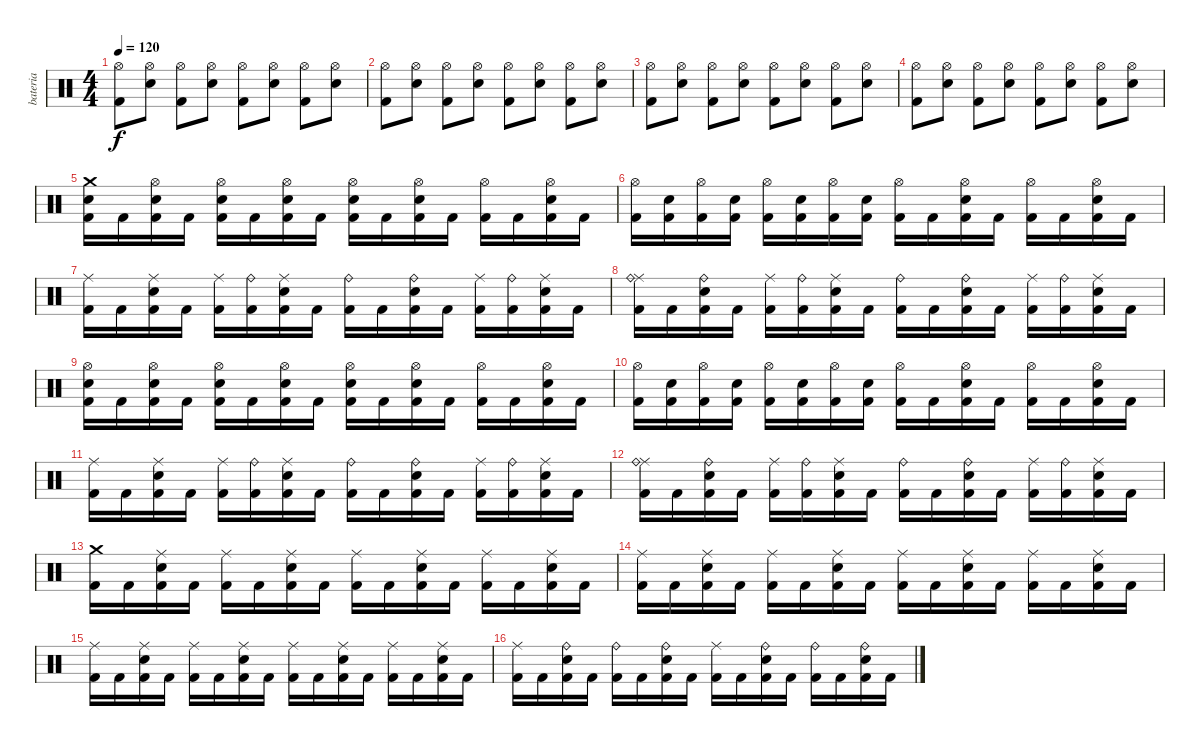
\track ("bateria" "bateria") {instrument percussion}
\staff {score}
\articulation defaults
\ts (4 4)
\tempo 120
\clef neutral
\ks c
("Hi-Hat (open)" "Kick (hit) 2").8{dy f} ("Hi-Hat (open)" "Electric Snare (hit)").8 ("Hi-Hat (open)" "Kick (hit) 2").8 ("Hi-Hat (open)" "Electric Snare (hit)").8 ("Hi-Hat (open)" "Kick (hit) 2").8 ("Hi-Hat (open)" "Electric Snare (hit)").8 ("Hi-Hat (open)" "Kick (hit) 2").8 ("Hi-Hat (open)" "Electric Snare (hit)").8 |
("Hi-Hat (open)" "Kick (hit) 2").8 ("Hi-Hat (open)" "Electric Snare (hit)").8 ("Hi-Hat (open)" "Kick (hit) 2").8 ("Hi-Hat (open)" "Electric Snare (hit)").8 ("Hi-Hat (open)" "Kick (hit) 2").8 ("Hi-Hat (open)" "Electric Snare (hit)").8 ("Hi-Hat (open)" "Kick (hit) 2").8 ("Hi-Hat (open)" "Electric Snare (hit)").8 |
("Hi-Hat (open)" "Kick (hit) 2").8 ("Hi-Hat (open)" "Electric Snare (hit)").8 ("Hi-Hat (open)" "Kick (hit) 2").8 ("Hi-Hat (open)" "Electric Snare (hit)").8 ("Hi-Hat (open)" "Kick (hit) 2").8 ("Hi-Hat (open)" "Electric Snare (hit)").8 ("Hi-Hat (open)" "Kick (hit) 2").8 ("Hi-Hat (open)" "Electric Snare (hit)").8 |
("Hi-Hat (open)" "Kick (hit) 2").8 ("Hi-Hat (open)" "Electric Snare (hit)").8 ("Hi-Hat (open)" "Kick (hit) 2").8 ("Hi-Hat (open)" "Electric Snare (hit)").8 ("Hi-Hat (open)" "Kick (hit) 2").8 ("Hi-Hat (open)" "Electric Snare (hit)").8 ("Hi-Hat (open)" "Kick (hit) 2").8 ("Hi-Hat (open)" "Electric Snare (hit)").8 |
("Crash medium (hit)" "Electric Snare (hit)" "Kick (hit) 2").16 "Kick (hit) 2".16 ("Hi-Hat (open)" "Electric Snare (hit)" "Kick (hit) 2").16 "Kick (hit) 2".16 ("Hi-Hat (open)" "Electric Snare (hit)" "Kick (hit) 2").16 "Kick (hit) 2".16 ("Hi-Hat (open)" "Electric Snare (hit)" "Kick (hit) 2").16 "Kick (hit) 2".16 ("Hi-Hat (open)" "Electric Snare (hit)" "Kick (hit) 2").16 "Kick (hit) 2".16 ("Hi-Hat (open)" "Electric Snare (hit)" "Kick (hit) 2").16 "Kick (hit) 2".16 ("Hi-Hat (open)" "Kick (hit) 2").16 "Kick (hit) 2".16 ("Hi-Hat (open)" "Electric Snare (hit)" "Kick (hit) 2").16 "Kick (hit) 2".16 |
("Hi-Hat (open)" "Kick (hit) 2").16 ("Electric Snare (hit)" "Kick (hit) 2").16 ("Hi-Hat (open)" "Kick (hit) 2").16 ("Electric Snare (hit)" "Kick (hit) 2").16 ("Hi-Hat (open)" "Kick (hit) 2").16 ("Electric Snare (hit)" "Kick (hit) 2").16 ("Hi-Hat (open)" "Kick (hit) 2").16 ("Electric Snare (hit)" "Kick (hit) 2").16 ("Hi-Hat (open)" "Kick (hit) 2").16 "Kick (hit) 2".16 ("Hi-Hat (open)" "Electric Snare (hit)" "Kick (hit) 2").16 "Kick (hit) 2".16 ("Hi-Hat (open)" "Kick (hit) 2").16 "Kick (hit) 2".16 ("Hi-Hat (open)" "Electric Snare (hit)" "Kick (hit) 2").16 "Kick (hit) 2".16 |
("Ride (middle)" "Kick (hit) 2").16 "Kick (hit) 2".16 ("Ride (middle)" "Electric Snare (hit)" "Kick (hit) 2").16 "Kick (hit) 2".16 ("Ride (middle)" "Kick (hit) 2").16 ("Ride (bell)" "Kick (hit) 2").16 ("Ride (middle)" "Electric Snare (hit)" "Kick (hit) 2").16 "Kick (hit) 2".16 ("Ride (bell)" "Kick (hit) 2").16 "Kick (hit) 2".16 ("Ride (bell)" "Electric Snare (hit)" "Kick (hit) 2").16 "Kick (hit) 2".16 ("Ride (middle)" "Kick (hit) 2").16 ("Ride (bell)" "Kick (hit) 2").16 ("Ride (middle)" "Electric Snare (hit)" "Kick (hit) 2").16 "Kick (hit) 2".16 |
("Ride (middle)" "Ride (bell)" "Kick (hit) 2").16 "Kick (hit) 2".16 ("Ride (bell)" "Electric Snare (hit)" "Kick (hit) 2").16 "Kick (hit) 2".16 ("Ride (middle)" "Kick (hit) 2").16 ("Ride (bell)" "Kick (hit) 2").16 ("Ride (middle)" "Electric Snare (hit)" "Kick (hit) 2").16 "Kick (hit) 2".16 ("Ride (bell)" "Kick (hit) 2").16 "Kick (hit) 2".16 ("Ride (bell)" "Electric Snare (hit)" "Kick (hit) 2").16 "Kick (hit) 2".16 ("Ride (middle)" "Kick (hit) 2").16 ("Ride (bell)" "Kick (hit) 2").16 ("Ride (middle)" "Electric Snare (hit)" "Kick (hit) 2").16 "Kick (hit) 2".16 |
("Hi-Hat (open)" "Electric Snare (hit)" "Kick (hit) 2").16 "Kick (hit) 2".16 ("Hi-Hat (open)" "Electric Snare (hit)" "Kick (hit) 2").16 "Kick (hit) 2".16 ("Hi-Hat (open)" "Electric Snare (hit)" "Kick (hit) 2").16 "Kick (hit) 2".16 ("Hi-Hat (open)" "Electric Snare (hit)" "Kick (hit) 2").16 "Kick (hit) 2".16 ("Hi-Hat (open)" "Electric Snare (hit)" "Kick (hit) 2").16 "Kick (hit) 2".16 ("Hi-Hat (open)" "Electric Snare (hit)" "Kick (hit) 2").16 "Kick (hit) 2".16 ("Hi-Hat (open)" "Kick (hit) 2").16 "Kick (hit) 2".16 ("Hi-Hat (open)" "Electric Snare (hit)" "Kick (hit) 2").16 "Kick (hit) 2".16 |
("Hi-Hat (open)" "Kick (hit) 2").16 ("Electric Snare (hit)" "Kick (hit) 2").16 ("Hi-Hat (open)" "Kick (hit) 2").16 ("Electric Snare (hit)" "Kick (hit) 2").16 ("Hi-Hat (open)" "Kick (hit) 2").16 ("Electric Snare (hit)" "Kick (hit) 2").16 ("Hi-Hat (open)" "Kick (hit) 2").16 ("Electric Snare (hit)" "Kick (hit) 2").16 ("Hi-Hat (open)" "Kick (hit) 2").16 "Kick (hit) 2".16 ("Hi-Hat (open)" "Electric Snare (hit)" "Kick (hit) 2").16 "Kick (hit) 2".16 ("Hi-Hat (open)" "Kick (hit) 2").16 "Kick (hit) 2".16 ("Hi-Hat (open)" "Electric Snare (hit)" "Kick (hit) 2").16 "Kick (hit) 2".16 |
("Ride (middle)" "Kick (hit) 2").16 "Kick (hit) 2".16 ("Ride (middle)" "Electric Snare (hit)" "Kick (hit) 2").16 "Kick (hit) 2".16 ("Ride (middle)" "Kick (hit) 2").16 ("Ride (bell)" "Kick (hit) 2").16 ("Ride (middle)" "Electric Snare (hit)" "Kick (hit) 2").16 "Kick (hit) 2".16 ("Ride (bell)" "Kick (hit) 2").16 "Kick (hit) 2".16 ("Ride (bell)" "Electric Snare (hit)" "Kick (hit) 2").16 "Kick (hit) 2".16 ("Ride (middle)" "Kick (hit) 2").16 ("Ride (bell)" "Kick (hit) 2").16 ("Ride (middle)" "Electric Snare (hit)" "Kick (hit) 2").16 "Kick (hit) 2".16 |
("Ride (middle)" "Ride (bell)" "Kick (hit) 2").16 "Kick (hit) 2".16 ("Ride (bell)" "Electric Snare (hit)" "Kick (hit) 2").16 "Kick (hit) 2".16 ("Ride (middle)" "Kick (hit) 2").16 ("Ride (bell)" "Kick (hit) 2").16 ("Ride (middle)" "Electric Snare (hit)" "Kick (hit) 2").16 "Kick (hit) 2".16 ("Ride (bell)" "Kick (hit) 2").16 "Kick (hit) 2".16 ("Ride (bell)" "Electric Snare (hit)" "Kick (hit) 2").16 "Kick (hit) 2".16 ("Ride (middle)" "Kick (hit) 2").16 ("Ride (bell)" "Kick (hit) 2").16 ("Ride (middle)" "Electric Snare (hit)" "Kick (hit) 2").16 "Kick (hit) 2".16 |
("Crash medium (hit)" "Kick (hit) 2").16 "Kick (hit) 2".16 ("Ride (middle)" "Electric Snare (hit)" "Kick (hit) 2").16 "Kick (hit) 2".16 ("Ride (middle)" "Kick (hit) 2").16 "Kick (hit) 2".16 ("Ride (middle)" "Electric Snare (hit)" "Kick (hit) 2").16 "Kick (hit) 2".16 ("Ride (middle)" "Kick (hit) 2").16 "Kick (hit) 2".16 ("Ride (middle)" "Electric Snare (hit)" "Kick (hit) 2").16 "Kick (hit) 2".16 ("Ride (middle)" "Kick (hit) 2").16 "Kick (hit) 2".16 ("Ride (middle)" "Electric Snare (hit)" "Kick (hit) 2").16 "Kick (hit) 2".16 |
("Ride (middle)" "Kick (hit) 2").16 "Kick (hit) 2".16 ("Ride (middle)" "Electric Snare (hit)" "Kick (hit) 2").16 "Kick (hit) 2".16 ("Ride (middle)" "Kick (hit) 2").16 "Kick (hit) 2".16 ("Ride (middle)" "Electric Snare (hit)" "Kick (hit) 2").16 "Kick (hit) 2".16 ("Ride (middle)" "Kick (hit) 2").16 "Kick (hit) 2".16 ("Ride (middle)" "Electric Snare (hit)" "Kick (hit) 2").16 "Kick (hit) 2".16 ("Ride (middle)" "Kick (hit) 2").16 "Kick (hit) 2".16 ("Ride (middle)" "Electric Snare (hit)" "Kick (hit) 2").16 "Kick (hit) 2".16 |
("Ride (middle)" "Kick (hit) 2").16 "Kick (hit) 2".16 ("Ride (middle)" "Electric Snare (hit)" "Kick (hit) 2").16 "Kick (hit) 2".16 ("Ride (middle)" "Kick (hit) 2").16 "Kick (hit) 2".16 ("Ride (middle)" "Electric Snare (hit)" "Kick (hit) 2").16 "Kick (hit) 2".16 ("Ride (middle)" "Kick (hit) 2").16 "Kick (hit) 2".16 ("Ride (middle)" "Electric Snare (hit)" "Kick (hit) 2").16 "Kick (hit) 2".16 ("Ride (middle)" "Kick (hit) 2").16 "Kick (hit) 2".16 ("Ride (middle)" "Electric Snare (hit)" "Kick (hit) 2").16 "Kick (hit) 2".16 |
("Ride (middle)" "Kick (hit) 2").16 "Kick (hit) 2".16 ("Ride (bell)" "Electric Snare (hit)" "Kick (hit) 2").16 "Kick (hit) 2".16 ("Ride (bell)" "Kick (hit) 2").16 "Kick (hit) 2".16 ("Ride (bell)" "Electric Snare (hit)" "Kick (hit) 2").16 "Kick (hit) 2".16 ("Ride (middle)" "Kick (hit) 2").16 "Kick (hit) 2".16 ("Ride (bell)" "Electric Snare (hit)" "Kick (hit) 2").16 "Kick (hit) 2".16 ("Ride (bell)" "Kick (hit) 2").16 "Kick (hit) 2".16 ("Ride (bell)" "Electric Snare (hit)" "Kick (hit) 2").16 "Kick (hit) 2".16
